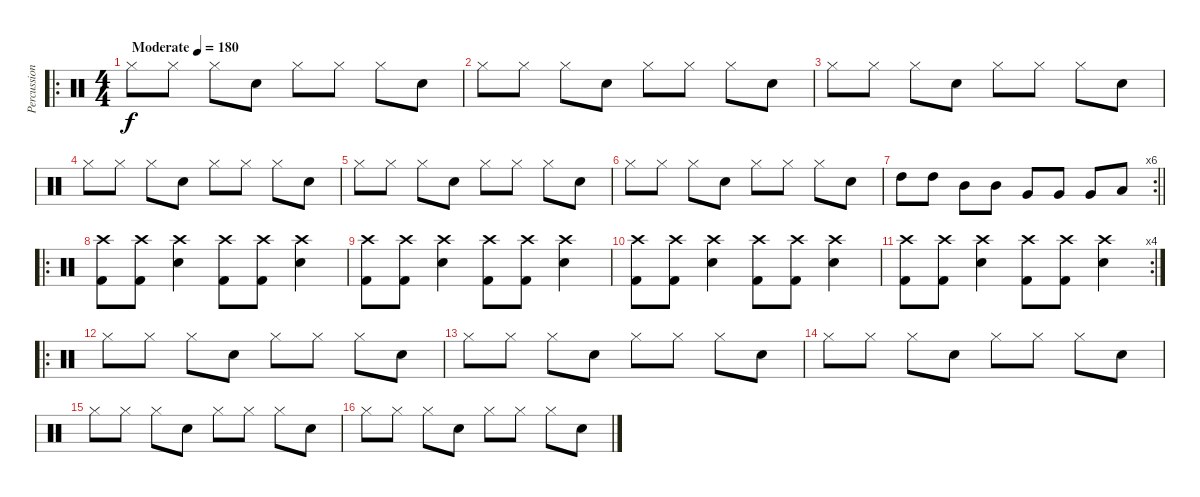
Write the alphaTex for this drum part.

\track ("Percussion" "Percussion") {instrument percussion}
\staff {score}
\articulation defaults
\ro
\ts (4 4)
\tempo (180 "Moderate")
\clef neutral
\ks c "Hi-Hat (closed)".8{dy f} "Hi-Hat (closed)".8 "Hi-Hat (closed)".8 "Snare (hit) 2".8 "Hi-Hat (closed)".8 "Hi-Hat (closed)".8 "Hi-Hat (closed)".8 "Snare (hit) 2".8
|
"Hi-Hat (closed)".8 "Hi-Hat (closed)".8 "Hi-Hat (closed)".8 "Snare (hit) 2".8 "Hi-Hat (closed)".8 "Hi-Hat (closed)".8 "Hi-Hat (closed)".8 "Snare (hit) 2".8 |
"Hi-Hat (closed)".8 "Hi-Hat (closed)".8 "Hi-Hat (closed)".8 "Snare (hit) 2".8 "Hi-Hat (closed)".8 "Hi-Hat (closed)".8 "Hi-Hat (closed)".8 "Snare (hit) 2".8 |
"Hi-Hat (closed)".8 "Hi-Hat (closed)".8 "Hi-Hat (closed)".8 "Snare (hit) 2".8 "Hi-Hat (closed)".8 "Hi-Hat (closed)".8 "Hi-Hat (closed)".8 "Snare (hit) 2".8 |
"Hi-Hat (closed)".8 "Hi-Hat (closed)".8 "Hi-Hat (closed)".8 "Snare (hit) 2".8 "Hi-Hat (closed)".8 "Hi-Hat (closed)".8 "Hi-Hat (closed)".8 "Snare (hit) 2".8 |
"Hi-Hat (closed)".8 "Hi-Hat (closed)".8 "Hi-Hat (closed)".8 "Snare (hit) 2".8 "Hi-Hat (closed)".8 "Hi-Hat (closed)".8 "Hi-Hat (closed)".8 "Snare (hit) 2".8 |
\rc 6
\barLineRight lightlight "High Tom (hit)".8 "High Tom (hit)".8 "Mid Tom (hit)".8 "Mid Tom (hit)".8 "Very Low Tom (hit)".8 "Very Low Tom (hit)".8 "Very Low Tom (hit)".8 "Low Floor Tom (hit)".8
|
\ro
("Crash high (hit)" "Kick (hit) 2").8 ("Crash high (hit)" "Kick (hit) 2").8 ("Crash high (hit)" "Snare (hit) 2").4 ("Crash high (hit)" "Kick (hit) 2").8 ("Crash high (hit)" "Kick (hit) 2").8 ("Crash high (hit)" "Snare (hit) 2").4 |
("Crash high (hit)" "Kick (hit) 2").8 ("Crash high (hit)" "Kick (hit) 2").8 ("Crash high (hit)" "Snare (hit) 2").4 ("Crash high (hit)" "Kick (hit) 2").8 ("Crash high (hit)" "Kick (hit) 2").8 ("Crash high (hit)" "Snare (hit) 2").4 |
("Crash high (hit)" "Kick (hit) 2").8 ("Crash high (hit)" "Kick (hit) 2").8 ("Crash high (hit)" "Snare (hit) 2").4 ("Crash high (hit)" "Kick (hit) 2").8 ("Crash high (hit)" "Kick (hit) 2").8 ("Crash high (hit)" "Snare (hit) 2").4 |
\rc 4
("Crash high (hit)" "Kick (hit) 2").8 ("Crash high (hit)" "Kick (hit) 2").8 ("Crash high (hit)" "Snare (hit) 2").4 ("Crash high (hit)" "Kick (hit) 2").8 ("Crash high (hit)" "Kick (hit) 2").8 ("Crash high (hit)" "Snare (hit) 2").4 |
\ro "Hi-Hat (closed)".8 "Hi-Hat (closed)".8 "Hi-Hat (closed)".8 "Snare (hit) 2".8 "Hi-Hat (closed)".8 "Hi-Hat (closed)".8 "Hi-Hat (closed)".8 "Snare (hit) 2".8
|
"Hi-Hat (closed)".8 "Hi-Hat (closed)".8 "Hi-Hat (closed)".8 "Snare (hit) 2".8 "Hi-Hat (closed)".8 "Hi-Hat (closed)".8 "Hi-Hat (closed)".8 "Snare (hit) 2".8 |
"Hi-Hat (closed)".8 "Hi-Hat (closed)".8 "Hi-Hat (closed)".8 "Snare (hit) 2".8 "Hi-Hat (closed)".8 "Hi-Hat (closed)".8 "Hi-Hat (closed)".8 "Snare (hit) 2".8 |
"Hi-Hat (closed)".8 "Hi-Hat (closed)".8 "Hi-Hat (closed)".8 "Snare (hit) 2".8 "Hi-Hat (closed)".8 "Hi-Hat (closed)".8 "Hi-Hat (closed)".8 "Snare (hit) 2".8 |
"Hi-Hat (closed)".8 "Hi-Hat (closed)".8 "Hi-Hat (closed)".8 "Snare (hit) 2".8 "Hi-Hat (closed)".8 "Hi-Hat (closed)".8 "Hi-Hat (closed)".8 "Snare (hit) 2".8
